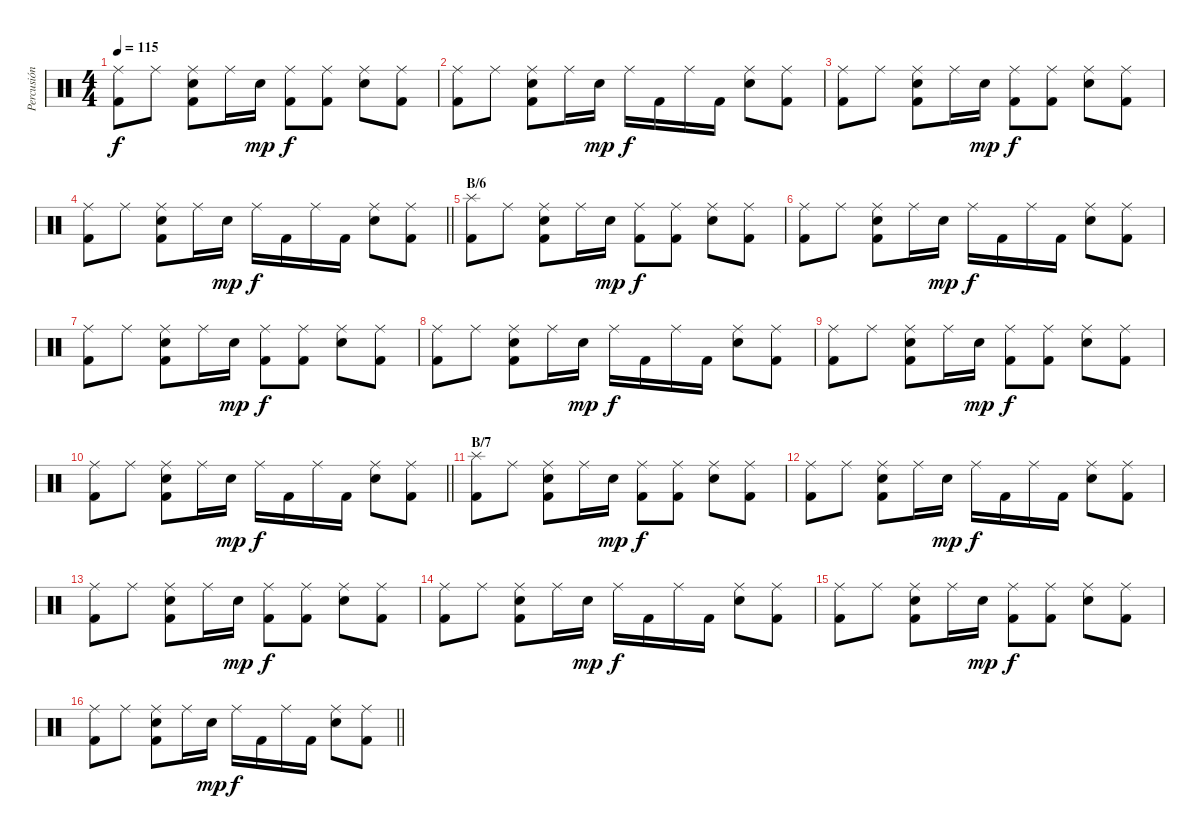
\track ("Percusión" "Percusión") {instrument percussion}
\staff {score}
\articulation defaults
\ts (4 4)
\tempo 115
\clef neutral
\ks c
("Ride (middle)" "Kick (hit) 2").8{dy f} "Ride (middle)".8 ("Ride (middle)" "Snare (hit) 2" "Kick (hit) 2").8 "Ride (middle)".16 "Snare (hit) 2".16{dy mp} ("Ride (middle)" "Kick (hit) 2").8{dy f} ("Ride (middle)" "Kick (hit) 2").8 ("Ride (middle)" "Snare (hit) 2").8 ("Ride (middle)" "Kick (hit) 2").8 |
("Ride (middle)" "Kick (hit) 2").8 "Ride (middle)".8 ("Ride (middle)" "Snare (hit) 2" "Kick (hit) 2").8 "Ride (middle)".16 "Snare (hit) 2".16{dy mp} "Ride (middle)".16{dy f} "Kick (hit) 2".16 "Ride (middle)".16 "Kick (hit) 2".16 ("Ride (middle)" "Snare (hit) 2").8 ("Ride (middle)" "Kick (hit) 2").8 |
("Ride (middle)" "Kick (hit) 2").8 "Ride (middle)".8 ("Ride (middle)" "Snare (hit) 2" "Kick (hit) 2").8 "Ride (middle)".16 "Snare (hit) 2".16{dy mp} ("Ride (middle)" "Kick (hit) 2").8{dy f} ("Ride (middle)" "Kick (hit) 2").8 ("Ride (middle)" "Snare (hit) 2").8 ("Ride (middle)" "Kick (hit) 2").8 |
\barLineRight lightlight
("Ride (middle)" "Kick (hit) 2").8 "Ride (middle)".8 ("Ride (middle)" "Snare (hit) 2" "Kick (hit) 2").8 "Ride (middle)".16 "Snare (hit) 2".16{dy mp} "Ride (middle)".16{dy f} "Kick (hit) 2".16 "Ride (middle)".16 "Kick (hit) 2".16 ("Ride (middle)" "Snare (hit) 2").8 ("Ride (middle)" "Kick (hit) 2").8 |
\section ("" "B/6")
("Splash (hit)" "Kick (hit) 2").8 "Ride (middle)".8 ("Ride (middle)" "Snare (hit) 2" "Kick (hit) 2").8 "Ride (middle)".16 "Snare (hit) 2".16{dy mp} ("Ride (middle)" "Kick (hit) 2").8{dy f} ("Ride (middle)" "Kick (hit) 2").8 ("Ride (middle)" "Snare (hit) 2").8 ("Ride (middle)" "Kick (hit) 2").8 |
("Ride (middle)" "Kick (hit) 2").8 "Ride (middle)".8 ("Ride (middle)" "Snare (hit) 2" "Kick (hit) 2").8 "Ride (middle)".16 "Snare (hit) 2".16{dy mp} "Ride (middle)".16{dy f} "Kick (hit) 2".16 "Ride (middle)".16 "Kick (hit) 2".16 ("Ride (middle)" "Snare (hit) 2").8 ("Ride (middle)" "Kick (hit) 2").8 |
("Ride (middle)" "Kick (hit) 2").8 "Ride (middle)".8 ("Ride (middle)" "Snare (hit) 2" "Kick (hit) 2").8 "Ride (middle)".16 "Snare (hit) 2".16{dy mp} ("Ride (middle)" "Kick (hit) 2").8{dy f} ("Ride (middle)" "Kick (hit) 2").8 ("Ride (middle)" "Snare (hit) 2").8 ("Ride (middle)" "Kick (hit) 2").8 |
("Ride (middle)" "Kick (hit) 2").8 "Ride (middle)".8 ("Ride (middle)" "Snare (hit) 2" "Kick (hit) 2").8 "Ride (middle)".16 "Snare (hit) 2".16{dy mp} "Ride (middle)".16{dy f} "Kick (hit) 2".16 "Ride (middle)".16 "Kick (hit) 2".16 ("Ride (middle)" "Snare (hit) 2").8 ("Ride (middle)" "Kick (hit) 2").8 |
("Ride (middle)" "Kick (hit) 2").8 "Ride (middle)".8 ("Ride (middle)" "Snare (hit) 2" "Kick (hit) 2").8 "Ride (middle)".16 "Snare (hit) 2".16{dy mp} ("Ride (middle)" "Kick (hit) 2").8{dy f} ("Ride (middle)" "Kick (hit) 2").8 ("Ride (middle)" "Snare (hit) 2").8 ("Ride (middle)" "Kick (hit) 2").8 |
\barLineRight lightlight
("Ride (middle)" "Kick (hit) 2").8 "Ride (middle)".8 ("Ride (middle)" "Snare (hit) 2" "Kick (hit) 2").8 "Ride (middle)".16 "Snare (hit) 2".16{dy mp} "Ride (middle)".16{dy f} "Kick (hit) 2".16 "Ride (middle)".16 "Kick (hit) 2".16 ("Ride (middle)" "Snare (hit) 2").8 ("Ride (middle)" "Kick (hit) 2").8 |
\section ("" "B/7")
("Splash (hit)" "Kick (hit) 2").8 "Ride (middle)".8 ("Ride (middle)" "Snare (hit) 2" "Kick (hit) 2").8 "Ride (middle)".16 "Snare (hit) 2".16{dy mp} ("Ride (middle)" "Kick (hit) 2").8{dy f} ("Ride (middle)" "Kick (hit) 2").8 ("Ride (middle)" "Snare (hit) 2").8 ("Ride (middle)" "Kick (hit) 2").8 |
("Ride (middle)" "Kick (hit) 2").8 "Ride (middle)".8 ("Ride (middle)" "Snare (hit) 2" "Kick (hit) 2").8 "Ride (middle)".16 "Snare (hit) 2".16{dy mp} "Ride (middle)".16{dy f} "Kick (hit) 2".16 "Ride (middle)".16 "Kick (hit) 2".16 ("Ride (middle)" "Snare (hit) 2").8 ("Ride (middle)" "Kick (hit) 2").8 |
("Ride (middle)" "Kick (hit) 2").8 "Ride (middle)".8 ("Ride (middle)" "Snare (hit) 2" "Kick (hit) 2").8 "Ride (middle)".16 "Snare (hit) 2".16{dy mp} ("Ride (middle)" "Kick (hit) 2").8{dy f} ("Ride (middle)" "Kick (hit) 2").8 ("Ride (middle)" "Snare (hit) 2").8 ("Ride (middle)" "Kick (hit) 2").8 |
("Ride (middle)" "Kick (hit) 2").8 "Ride (middle)".8 ("Ride (middle)" "Snare (hit) 2" "Kick (hit) 2").8 "Ride (middle)".16 "Snare (hit) 2".16{dy mp} "Ride (middle)".16{dy f} "Kick (hit) 2".16 "Ride (middle)".16 "Kick (hit) 2".16 ("Ride (middle)" "Snare (hit) 2").8 ("Ride (middle)" "Kick (hit) 2").8 |
("Ride (middle)" "Kick (hit) 2").8 "Ride (middle)".8 ("Ride (middle)" "Snare (hit) 2" "Kick (hit) 2").8 "Ride (middle)".16 "Snare (hit) 2".16{dy mp} ("Ride (middle)" "Kick (hit) 2").8{dy f} ("Ride (middle)" "Kick (hit) 2").8 ("Ride (middle)" "Snare (hit) 2").8 ("Ride (middle)" "Kick (hit) 2").8 |
\barLineRight lightlight
("Ride (middle)" "Kick (hit) 2").8 "Ride (middle)".8 ("Ride (middle)" "Snare (hit) 2" "Kick (hit) 2").8 "Ride (middle)".16 "Snare (hit) 2".16{dy mp} "Ride (middle)".16{dy f} "Kick (hit) 2".16 "Ride (middle)".16 "Kick (hit) 2".16 ("Ride (middle)" "Snare (hit) 2").8 ("Ride (middle)" "Kick (hit) 2").8
